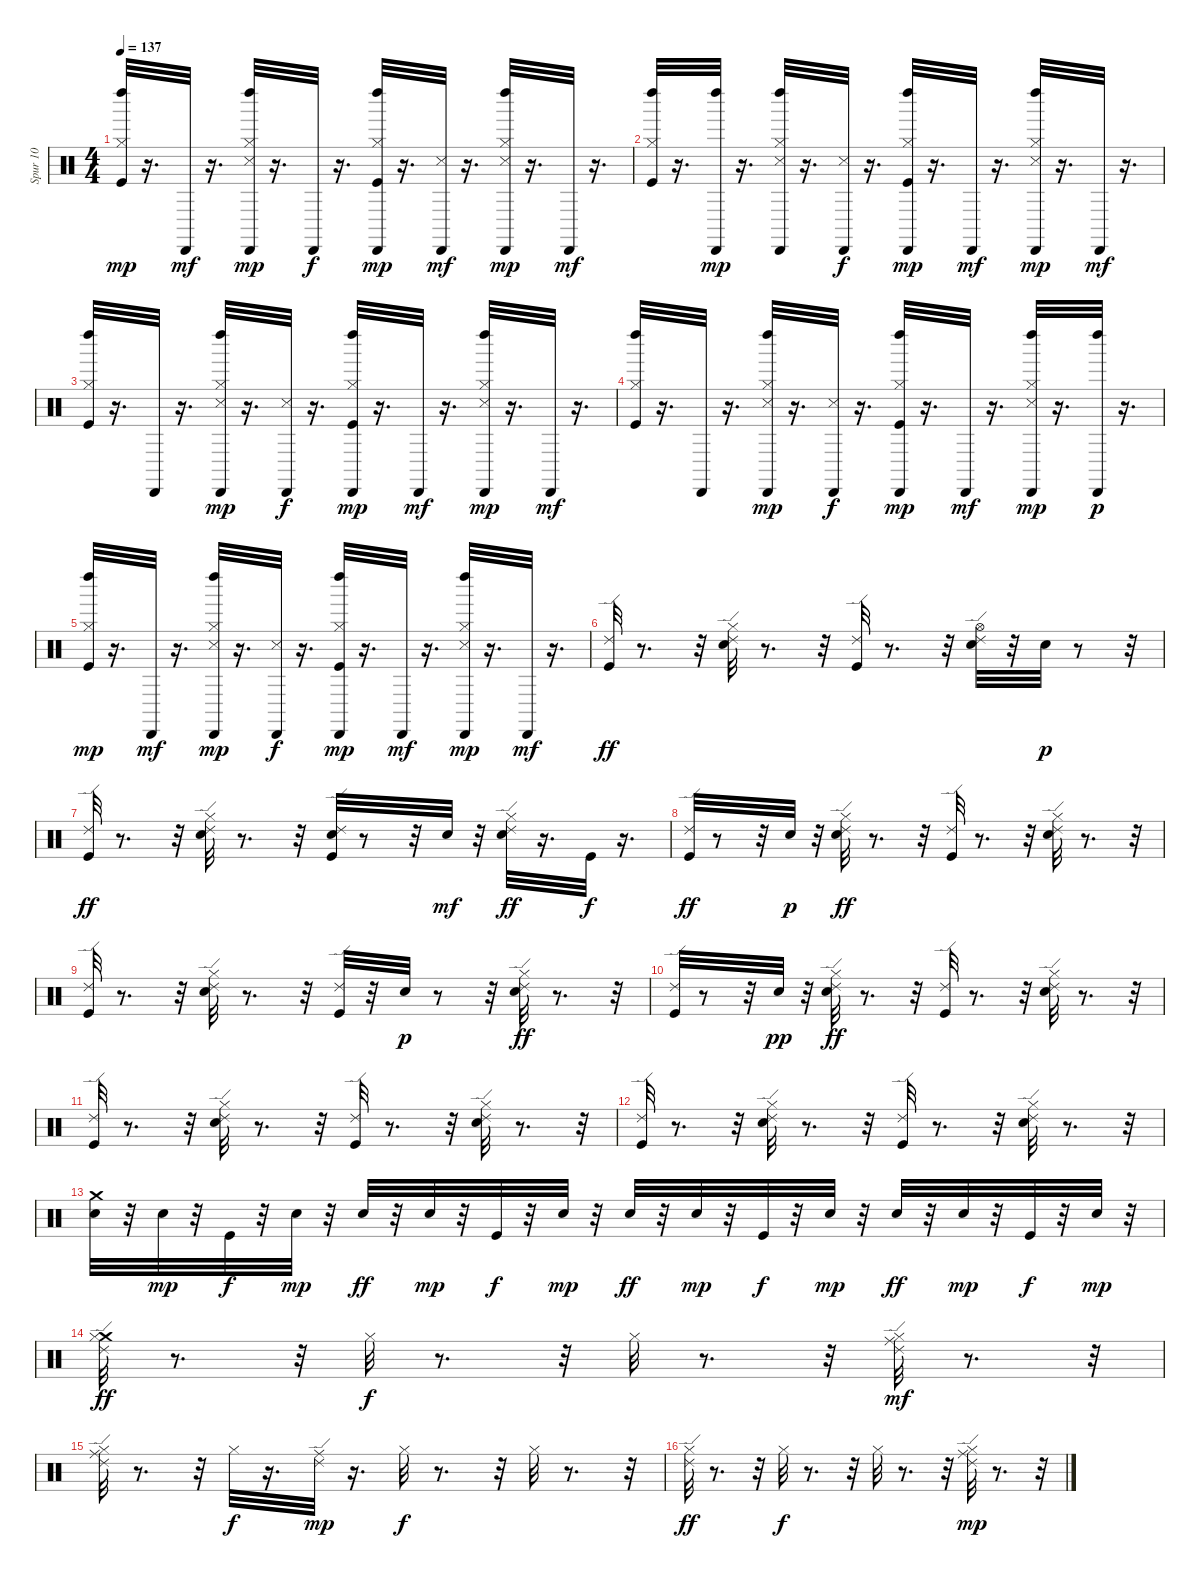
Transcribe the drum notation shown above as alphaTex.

\track ("Spur 10" "Spur 10") {instrument percussion}
\staff {score}
\articulation defaults
\ts (4 4)
\tempo 137
\clef neutral
\ks c
("Kick (hit)" "Hi-Hat (closed)" "Left Maraca (hit)").32{dy mp} r.16{d} "Cabasa (hit)".32{dy mf} r.16{d} ("Hi-Hat (closed)" "Snare (side stick) 3" "Cabasa (hit)" "Left Maraca (hit)").32{dy mp} r.16{d} "Cabasa (hit)".32{dy f} r.16{d} ("Kick (hit)" "Hi-Hat (closed)" "Cabasa (hit)" "Left Maraca (hit)").32{dy mp} r.16{d} ("Snare (side stick) 3" "Cabasa (hit)").32{dy mf} r.16{d} ("Hi-Hat (closed)" "Snare (side stick) 3" "Cabasa (hit)" "Left Maraca (hit)").32{dy mp} r.16{d} "Cabasa (hit)".32{dy mf} r.16{d} |
("Kick (hit)" "Hi-Hat (closed)" "Left Maraca (hit)").32 r.16{d} ("Cabasa (hit)" "Left Maraca (hit)").32{dy mp} r.16{d} ("Hi-Hat (closed)" "Snare (side stick) 3" "Cabasa (hit)" "Left Maraca (hit)").32 r.16{d} ("Snare (side stick) 3" "Cabasa (hit)").32{dy f} r.16{d} ("Kick (hit)" "Hi-Hat (closed)" "Cabasa (hit)" "Left Maraca (hit)").32{dy mp} r.16{d} "Cabasa (hit)".32{dy mf} r.16{d} ("Hi-Hat (closed)" "Snare (side stick) 3" "Cabasa (hit)" "Left Maraca (hit)").32{dy mp} r.16{d} "Cabasa (hit)".32{dy mf} r.16{d} |
("Kick (hit)" "Hi-Hat (closed)" "Left Maraca (hit)").32 r.16{d} "Cabasa (hit)".32 r.16{d} ("Hi-Hat (closed)" "Snare (side stick) 3" "Cabasa (hit)" "Left Maraca (hit)").32{dy mp} r.16{d} ("Snare (side stick) 3" "Cabasa (hit)").32{dy f} r.16{d} ("Kick (hit)" "Hi-Hat (closed)" "Cabasa (hit)" "Left Maraca (hit)").32{dy mp} r.16{d} "Cabasa (hit)".32{dy mf} r.16{d} ("Hi-Hat (closed)" "Snare (side stick) 3" "Cabasa (hit)" "Left Maraca (hit)").32{dy mp} r.16{d} "Cabasa (hit)".32{dy mf} r.16{d} |
("Kick (hit)" "Hi-Hat (closed)" "Left Maraca (hit)").32 r.16{d} "Cabasa (hit)".32 r.16{d} ("Hi-Hat (closed)" "Snare (side stick) 3" "Cabasa (hit)" "Left Maraca (hit)").32{dy mp} r.16{d} ("Snare (side stick) 3" "Cabasa (hit)").32{dy f} r.16{d} ("Kick (hit)" "Hi-Hat (closed)" "Cabasa (hit)" "Left Maraca (hit)").32{dy mp} r.16{d} "Cabasa (hit)".32{dy mf} r.16{d} ("Hi-Hat (closed)" "Snare (side stick) 3" "Cabasa (hit)" "Left Maraca (hit)").32{dy mp} r.16{d} ("Cabasa (hit)" "Left Maraca (hit)").32{dy p} r.16{d} |
("Kick (hit)" "Hi-Hat (closed)" "Left Maraca (hit)").32{dy mp} r.16{d} "Cabasa (hit)".32{dy mf} r.16{d} ("Hi-Hat (closed)" "Snare (side stick) 3" "Cabasa (hit)" "Left Maraca (hit)").32{dy mp} r.16{d} ("Snare (side stick) 3" "Cabasa (hit)").32{dy f} r.16{d} ("Kick (hit)" "Hi-Hat (closed)" "Cabasa (hit)" "Left Maraca (hit)").32{dy mp} r.16{d} "Cabasa (hit)".32{dy mf} r.16{d} ("Hi-Hat (closed)" "Snare (side stick) 3" "Cabasa (hit)" "Left Maraca (hit)").32{dy mp} r.16{d} "Cabasa (hit)".32{dy mf} r.16{d} |
("Ride (edge) 2" "Kick (hit)").32{dy ff} r.8{d} r.32 ("Ride (edge) 2" "Electric Snare (hit)" "Hi-Hat (closed)").32 r.8{d} r.32 ("Ride (edge) 2" "Kick (hit)").32 r.8{d} r.32 ("Ride (edge) 2" "Electric Snare (hit)" "Hi-Hat (open)").32 r.32 "Electric Snare (hit)".32{dy p} r.8 r.32 |
("Ride (edge) 2" "Kick (hit)").32{dy ff} r.8{d} r.32 ("Ride (edge) 2" "Electric Snare (hit)" "Hi-Hat (closed)").32 r.8{d} r.32 ("Ride (edge) 2" "Kick (hit)" "Electric Snare (hit)").32 r.8 r.32 "Electric Snare (hit)".32{dy mf} r.32 ("Ride (edge) 2" "Electric Snare (hit)" "Hi-Hat (closed)").32{dy ff} r.16{d} "Kick (hit)".32{dy f} r.16{d} |
("Ride (edge) 2" "Kick (hit)").32{dy ff} r.8 r.32 "Electric Snare (hit)".32{dy p} r.32 ("Ride (edge) 2" "Electric Snare (hit)" "Hi-Hat (closed)").32{dy ff} r.8{d} r.32 ("Ride (edge) 2" "Kick (hit)").32 r.8{d} r.32 ("Ride (edge) 2" "Electric Snare (hit)" "Hi-Hat (closed)").32 r.8{d} r.32 |
("Ride (edge) 2" "Kick (hit)").32 r.8{d} r.32 ("Ride (edge) 2" "Electric Snare (hit)" "Hi-Hat (closed)").32 r.8{d} r.32 ("Ride (edge) 2" "Kick (hit)").32 r.32 "Electric Snare (hit)".32{dy p} r.8 r.32 ("Ride (edge) 2" "Electric Snare (hit)" "Hi-Hat (closed)").32{dy ff} r.8{d} r.32 |
("Ride (edge) 2" "Kick (hit)").32 r.8 r.32 "Electric Snare (hit)".32{dy pp} r.32 ("Ride (edge) 2" "Electric Snare (hit)" "Hi-Hat (closed)").32{dy ff} r.8{d} r.32 ("Ride (edge) 2" "Kick (hit)").32 r.8{d} r.32 ("Ride (edge) 2" "Electric Snare (hit)" "Hi-Hat (closed)").32 r.8{d} r.32 |
("Ride (edge) 2" "Kick (hit)").32 r.8{d} r.32 ("Ride (edge) 2" "Electric Snare (hit)" "Hi-Hat (closed)").32 r.8{d} r.32 ("Ride (edge) 2" "Kick (hit)").32 r.8{d} r.32 ("Ride (edge) 2" "Electric Snare (hit)" "Hi-Hat (closed)").32 r.8{d} r.32 |
("Ride (edge) 2" "Kick (hit)").32 r.8{d} r.32 ("Ride (edge) 2" "Electric Snare (hit)" "Hi-Hat (closed)").32 r.8{d} r.32 ("Ride (edge) 2" "Kick (hit)").32 r.8{d} r.32 ("Ride (edge) 2" "Electric Snare (hit)" "Hi-Hat (closed)").32 r.8{d} r.32 |
("Electric Snare (hit)" "Crash medium (hit)").32 r.32 "Electric Snare (hit)".32{dy mp} r.32 "Kick (hit)".32{dy f} r.32 "Electric Snare (hit)".32{dy mp} r.32 "Electric Snare (hit)".32{dy ff} r.32 "Electric Snare (hit)".32{dy mp} r.32 "Kick (hit)".32{dy f} r.32 "Electric Snare (hit)".32{dy mp} r.32 "Electric Snare (hit)".32{dy ff} r.32 "Electric Snare (hit)".32{dy mp} r.32 "Kick (hit)".32{dy f} r.32 "Electric Snare (hit)".32{dy mp} r.32 "Electric Snare (hit)".32{dy ff} r.32 "Electric Snare (hit)".32{dy mp} r.32 "Kick (hit)".32{dy f} r.32 "Electric Snare (hit)".32{dy mp} r.32 |
("Crash medium (hit)" "Ride (edge) 2" "Hi-Hat (closed)").32{dy ff} r.8{d} r.32 "Hi-Hat (closed)".32{dy f} r.8{d} r.32 "Hi-Hat (closed)".32 r.8{d} r.32 ("Ride (edge) 2" "Hi-Hat (closed)" "Ride (middle)").32{dy mf} r.8{d} r.32 |
("Ride (edge) 2" "Hi-Hat (closed)" "Ride (middle)").32 r.8{d} r.32 "Hi-Hat (closed)".32{dy f} r.16{d} ("Ride (edge) 2" "Ride (middle)").32{dy mp} r.16{d} "Hi-Hat (closed)".32{dy f} r.8{d} r.32 "Hi-Hat (closed)".32 r.8{d} r.32 |
("Ride (edge) 2" "Hi-Hat (closed)").32{dy ff} r.8{d} r.32 "Hi-Hat (closed)".32{dy f} r.8{d} r.32 "Hi-Hat (closed)".32 r.8{d} r.32 ("Ride (edge) 2" "Hi-Hat (closed)" "Ride (middle)").32{dy mp} r.8{d} r.32
